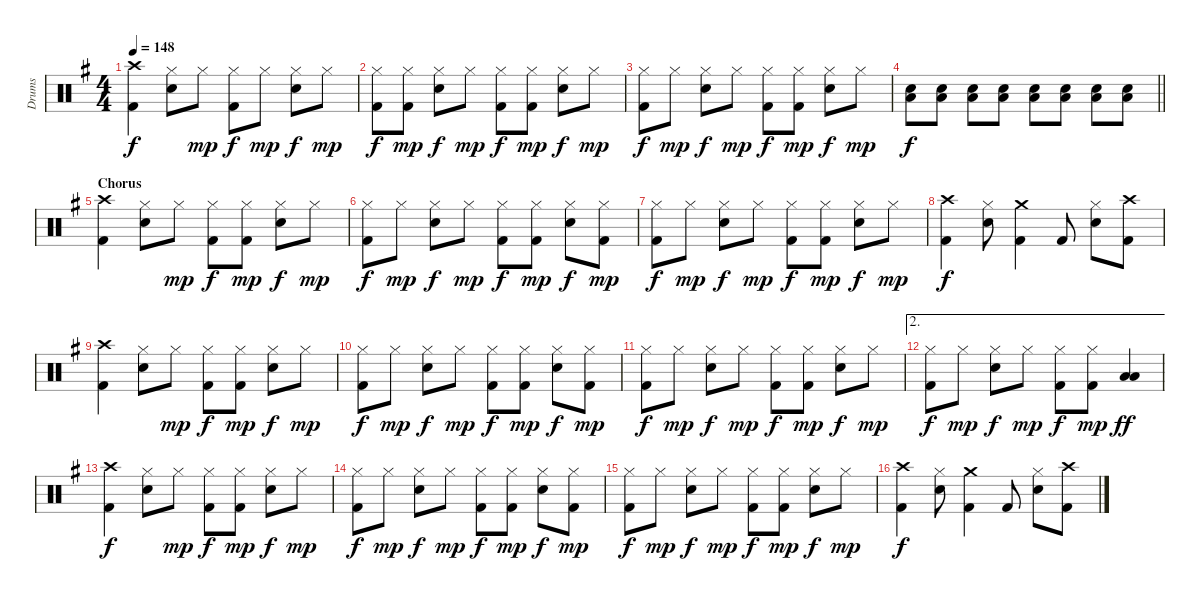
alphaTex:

\track ("Drums" "Drums") {instrument percussion}
\staff {score}
\articulation defaults
\ts (4 4)
\tempo 148
\clef neutral
\ks g
("Crash high (hit)" "Kick (hit) 2").4{dy f} ("Hi-Hat (closed)" "Electric Snare (hit)").8 "Hi-Hat (closed)".8{dy mp} ("Hi-Hat (closed)" "Kick (hit) 2").8{dy f} "Hi-Hat (closed)".8{dy mp} ("Hi-Hat (closed)" "Electric Snare (hit)").8{dy f} "Hi-Hat (closed)".8{dy mp} |
("Hi-Hat (closed)" "Kick (hit) 2").8{dy f} ("Hi-Hat (closed)" "Kick (hit) 2").8{dy mp} ("Hi-Hat (closed)" "Electric Snare (hit)").8{dy f} "Hi-Hat (closed)".8{dy mp} ("Hi-Hat (closed)" "Kick (hit) 2").8{dy f} ("Hi-Hat (closed)" "Kick (hit) 2").8{dy mp} ("Hi-Hat (closed)" "Electric Snare (hit)").8{dy f} "Hi-Hat (closed)".8{dy mp} |
("Hi-Hat (closed)" "Kick (hit) 2").8{dy f} "Hi-Hat (closed)".8{dy mp} ("Hi-Hat (closed)" "Electric Snare (hit)").8{dy f} "Hi-Hat (closed)".8{dy mp} ("Hi-Hat (closed)" "Kick (hit) 2").8{dy f} ("Hi-Hat (closed)" "Kick (hit) 2").8{dy mp} ("Hi-Hat (closed)" "Electric Snare (hit)").8{dy f} "Hi-Hat (closed)".8{dy mp} |
\barLineRight lightlight
("Electric Snare (hit)" "Low Tom (hit)").8{dy f} ("Electric Snare (hit)" "Low Tom (hit)").8 ("Electric Snare (hit)" "Low Tom (hit)").8 ("Electric Snare (hit)" "Low Tom (hit)").8 ("Electric Snare (hit)" "Low Tom (hit)").8 ("Electric Snare (hit)" "Low Tom (hit)").8 ("Electric Snare (hit)" "Low Tom (hit)").8 ("Electric Snare (hit)" "Low Tom (hit)").8 |
\section ("" "Chorus")
("Crash high (hit)" "Kick (hit) 2").4 ("Hi-Hat (closed)" "Electric Snare (hit)").8 "Hi-Hat (closed)".8{dy mp} ("Hi-Hat (closed)" "Kick (hit) 2").8{dy f} ("Hi-Hat (closed)" "Kick (hit) 2").8{dy mp} ("Hi-Hat (closed)" "Electric Snare (hit)").8{dy f} "Hi-Hat (closed)".8{dy mp} |
("Hi-Hat (closed)" "Kick (hit) 2").8{dy f} "Hi-Hat (closed)".8{dy mp} ("Hi-Hat (closed)" "Electric Snare (hit)").8{dy f} "Hi-Hat (closed)".8{dy mp} ("Hi-Hat (closed)" "Kick (hit) 2").8{dy f} ("Hi-Hat (closed)" "Kick (hit) 2").8{dy mp} ("Hi-Hat (closed)" "Electric Snare (hit)").8{dy f} ("Hi-Hat (closed)" "Kick (hit) 2").8{dy mp} |
("Hi-Hat (closed)" "Kick (hit) 2").8{dy f} "Hi-Hat (closed)".8{dy mp} ("Hi-Hat (closed)" "Electric Snare (hit)").8{dy f} "Hi-Hat (closed)".8{dy mp} ("Hi-Hat (closed)" "Kick (hit) 2").8{dy f} ("Hi-Hat (closed)" "Kick (hit) 2").8{dy mp} ("Hi-Hat (closed)" "Electric Snare (hit)").8{dy f} "Hi-Hat (closed)".8{dy mp} |
("Crash high (hit)" "Kick (hit) 2").4{dy f} ("Hi-Hat (closed)" "Electric Snare (hit)").8 ("Crash medium (hit)" "Kick (hit) 2").4 "Kick (hit) 2".8 ("Hi-Hat (closed)" "Electric Snare (hit)").8 ("Crash high (hit)" "Kick (hit) 2").8 |
("Crash high (hit)" "Kick (hit) 2").4 ("Hi-Hat (closed)" "Electric Snare (hit)").8 "Hi-Hat (closed)".8{dy mp} ("Hi-Hat (closed)" "Kick (hit) 2").8{dy f} ("Hi-Hat (closed)" "Kick (hit) 2").8{dy mp} ("Hi-Hat (closed)" "Electric Snare (hit)").8{dy f} "Hi-Hat (closed)".8{dy mp} |
("Hi-Hat (closed)" "Kick (hit) 2").8{dy f} "Hi-Hat (closed)".8{dy mp} ("Hi-Hat (closed)" "Electric Snare (hit)").8{dy f} "Hi-Hat (closed)".8{dy mp} ("Hi-Hat (closed)" "Kick (hit) 2").8{dy f} ("Hi-Hat (closed)" "Kick (hit) 2").8{dy mp} ("Hi-Hat (closed)" "Electric Snare (hit)").8{dy f} ("Hi-Hat (closed)" "Kick (hit) 2").8{dy mp} |
("Hi-Hat (closed)" "Kick (hit) 2").8{dy f} "Hi-Hat (closed)".8{dy mp} ("Hi-Hat (closed)" "Electric Snare (hit)").8{dy f} "Hi-Hat (closed)".8{dy mp} ("Hi-Hat (closed)" "Kick (hit) 2").8{dy f} ("Hi-Hat (closed)" "Kick (hit) 2").8{dy mp} ("Hi-Hat (closed)" "Electric Snare (hit)").8{dy f} "Hi-Hat (closed)".8{dy mp} |
\ae 2
("Hi-Hat (closed)" "Kick (hit) 2").8{dy f} "Hi-Hat (closed)".8{dy mp} ("Hi-Hat (closed)" "Electric Snare (hit)").8{dy f} "Hi-Hat (closed)".8{dy mp} ("Hi-Hat (closed)" "Kick (hit) 2").8{dy f} ("Hi-Hat (closed)" "Kick (hit) 2").8{dy mp} ("Low Tom (hit)" "Low Floor Tom (hit)").4{dy ff} |
("Crash high (hit)" "Kick (hit) 2").4{dy f} ("Hi-Hat (closed)" "Electric Snare (hit)").8 "Hi-Hat (closed)".8{dy mp} ("Hi-Hat (closed)" "Kick (hit) 2").8{dy f} ("Hi-Hat (closed)" "Kick (hit) 2").8{dy mp} ("Hi-Hat (closed)" "Electric Snare (hit)").8{dy f} "Hi-Hat (closed)".8{dy mp} |
("Hi-Hat (closed)" "Kick (hit) 2").8{dy f} "Hi-Hat (closed)".8{dy mp} ("Hi-Hat (closed)" "Electric Snare (hit)").8{dy f} "Hi-Hat (closed)".8{dy mp} ("Hi-Hat (closed)" "Kick (hit) 2").8{dy f} ("Hi-Hat (closed)" "Kick (hit) 2").8{dy mp} ("Hi-Hat (closed)" "Electric Snare (hit)").8{dy f} ("Hi-Hat (closed)" "Kick (hit) 2").8{dy mp} |
("Hi-Hat (closed)" "Kick (hit) 2").8{dy f} "Hi-Hat (closed)".8{dy mp} ("Hi-Hat (closed)" "Electric Snare (hit)").8{dy f} "Hi-Hat (closed)".8{dy mp} ("Hi-Hat (closed)" "Kick (hit) 2").8{dy f} ("Hi-Hat (closed)" "Kick (hit) 2").8{dy mp} ("Hi-Hat (closed)" "Electric Snare (hit)").8{dy f} "Hi-Hat (closed)".8{dy mp} |
("Crash high (hit)" "Kick (hit) 2").4{dy f} ("Hi-Hat (closed)" "Electric Snare (hit)").8 ("Crash medium (hit)" "Kick (hit) 2").4 "Kick (hit) 2".8 ("Hi-Hat (closed)" "Electric Snare (hit)").8 ("Crash high (hit)" "Kick (hit) 2").8
